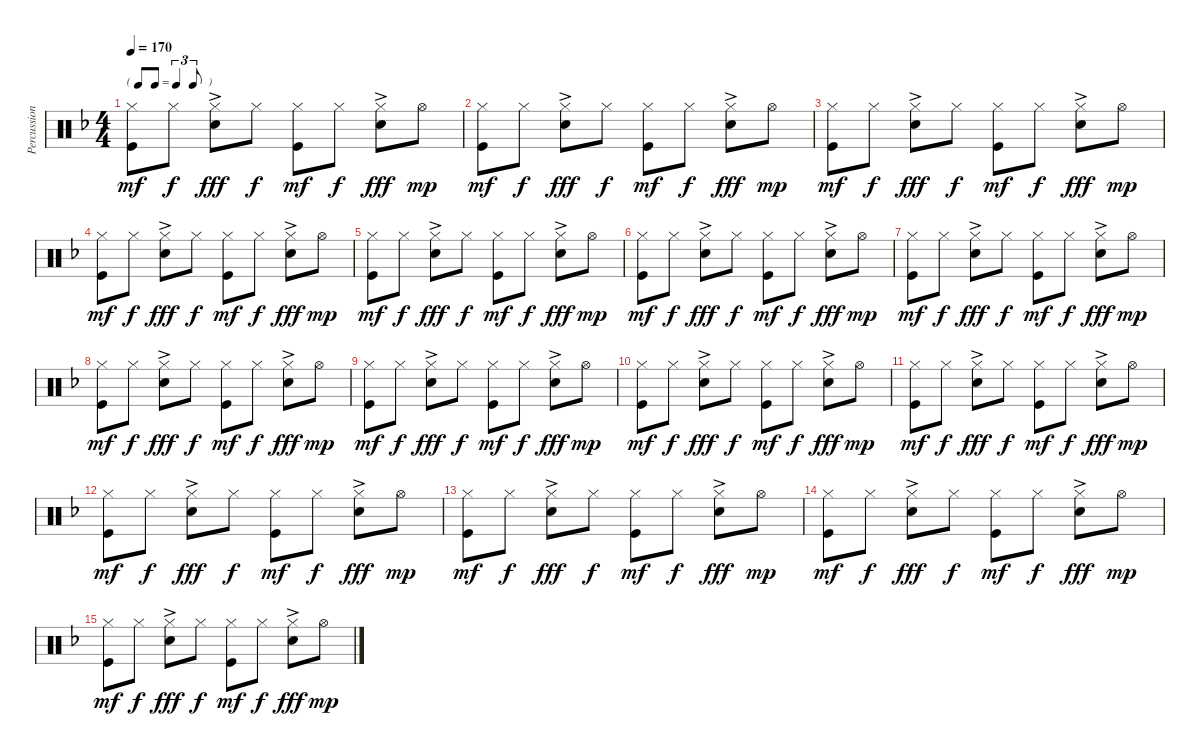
\track ("Percussion" "Percussion") {instrument percussion}
\staff {score}
\articulation defaults
\ts (4 4)
\tf triplet8th
\tempo 170
\clef neutral
\ks f
("Hi-Hat (closed)" "Kick (hit)").8{dy mf} "Hi-Hat (closed)".8{dy f} ("Hi-Hat (closed)" "Snare (hit) 2"{ac}).8{dy fff} "Hi-Hat (closed)".8{dy f} ("Hi-Hat (closed)" "Kick (hit)").8{dy mf} "Hi-Hat (closed)".8{dy f} ("Hi-Hat (closed)" "Snare (hit) 2"{ac}).8{dy fff} "Hi-Hat (open)".8{dy mp} |
("Hi-Hat (closed)" "Kick (hit)").8{dy mf} "Hi-Hat (closed)".8{dy f} ("Hi-Hat (closed)" "Snare (hit) 2"{ac}).8{dy fff} "Hi-Hat (closed)".8{dy f} ("Hi-Hat (closed)" "Kick (hit)").8{dy mf} "Hi-Hat (closed)".8{dy f} ("Hi-Hat (closed)" "Snare (hit) 2"{ac}).8{dy fff} "Hi-Hat (open)".8{dy mp} |
("Hi-Hat (closed)" "Kick (hit)").8{dy mf} "Hi-Hat (closed)".8{dy f} ("Hi-Hat (closed)" "Snare (hit) 2"{ac}).8{dy fff} "Hi-Hat (closed)".8{dy f} ("Hi-Hat (closed)" "Kick (hit)").8{dy mf} "Hi-Hat (closed)".8{dy f} ("Hi-Hat (closed)" "Snare (hit) 2"{ac}).8{dy fff} "Hi-Hat (open)".8{dy mp} |
("Hi-Hat (closed)" "Kick (hit)").8{dy mf} "Hi-Hat (closed)".8{dy f} ("Hi-Hat (closed)" "Snare (hit) 2"{ac}).8{dy fff} "Hi-Hat (closed)".8{dy f} ("Hi-Hat (closed)" "Kick (hit)").8{dy mf} "Hi-Hat (closed)".8{dy f} ("Hi-Hat (closed)" "Snare (hit) 2"{ac}).8{dy fff} "Hi-Hat (open)".8{dy mp} |
("Hi-Hat (closed)" "Kick (hit)").8{dy mf} "Hi-Hat (closed)".8{dy f} ("Hi-Hat (closed)" "Snare (hit) 2"{ac}).8{dy fff} "Hi-Hat (closed)".8{dy f} ("Hi-Hat (closed)" "Kick (hit)").8{dy mf} "Hi-Hat (closed)".8{dy f} ("Hi-Hat (closed)" "Snare (hit) 2"{ac}).8{dy fff} "Hi-Hat (open)".8{dy mp} |
("Hi-Hat (closed)" "Kick (hit)").8{dy mf} "Hi-Hat (closed)".8{dy f} ("Hi-Hat (closed)" "Snare (hit) 2"{ac}).8{dy fff} "Hi-Hat (closed)".8{dy f} ("Hi-Hat (closed)" "Kick (hit)").8{dy mf} "Hi-Hat (closed)".8{dy f} ("Hi-Hat (closed)" "Snare (hit) 2"{ac}).8{dy fff} "Hi-Hat (open)".8{dy mp} |
("Hi-Hat (closed)" "Kick (hit)").8{dy mf} "Hi-Hat (closed)".8{dy f} ("Hi-Hat (closed)" "Snare (hit) 2"{ac}).8{dy fff} "Hi-Hat (closed)".8{dy f} ("Hi-Hat (closed)" "Kick (hit)").8{dy mf} "Hi-Hat (closed)".8{dy f} ("Hi-Hat (closed)" "Snare (hit) 2"{ac}).8{dy fff} "Hi-Hat (open)".8{dy mp} |
("Hi-Hat (closed)" "Kick (hit)").8{dy mf} "Hi-Hat (closed)".8{dy f} ("Hi-Hat (closed)" "Snare (hit) 2"{ac}).8{dy fff} "Hi-Hat (closed)".8{dy f} ("Hi-Hat (closed)" "Kick (hit)").8{dy mf} "Hi-Hat (closed)".8{dy f} ("Hi-Hat (closed)" "Snare (hit) 2"{ac}).8{dy fff} "Hi-Hat (open)".8{dy mp} |
("Hi-Hat (closed)" "Kick (hit)").8{dy mf} "Hi-Hat (closed)".8{dy f} ("Hi-Hat (closed)" "Snare (hit) 2"{ac}).8{dy fff} "Hi-Hat (closed)".8{dy f} ("Hi-Hat (closed)" "Kick (hit)").8{dy mf} "Hi-Hat (closed)".8{dy f} ("Hi-Hat (closed)" "Snare (hit) 2"{ac}).8{dy fff} "Hi-Hat (open)".8{dy mp} |
("Hi-Hat (closed)" "Kick (hit)").8{dy mf} "Hi-Hat (closed)".8{dy f} ("Hi-Hat (closed)" "Snare (hit) 2"{ac}).8{dy fff} "Hi-Hat (closed)".8{dy f} ("Hi-Hat (closed)" "Kick (hit)").8{dy mf} "Hi-Hat (closed)".8{dy f} ("Hi-Hat (closed)" "Snare (hit) 2"{ac}).8{dy fff} "Hi-Hat (open)".8{dy mp} |
("Hi-Hat (closed)" "Kick (hit)").8{dy mf} "Hi-Hat (closed)".8{dy f} ("Hi-Hat (closed)" "Snare (hit) 2"{ac}).8{dy fff} "Hi-Hat (closed)".8{dy f} ("Hi-Hat (closed)" "Kick (hit)").8{dy mf} "Hi-Hat (closed)".8{dy f} ("Hi-Hat (closed)" "Snare (hit) 2"{ac}).8{dy fff} "Hi-Hat (open)".8{dy mp} |
("Hi-Hat (closed)" "Kick (hit)").8{dy mf} "Hi-Hat (closed)".8{dy f} ("Hi-Hat (closed)" "Snare (hit) 2"{ac}).8{dy fff} "Hi-Hat (closed)".8{dy f} ("Hi-Hat (closed)" "Kick (hit)").8{dy mf} "Hi-Hat (closed)".8{dy f} ("Hi-Hat (closed)" "Snare (hit) 2"{ac}).8{dy fff} "Hi-Hat (open)".8{dy mp} |
("Hi-Hat (closed)" "Kick (hit)").8{dy mf} "Hi-Hat (closed)".8{dy f} ("Hi-Hat (closed)" "Snare (hit) 2"{ac}).8{dy fff} "Hi-Hat (closed)".8{dy f} ("Hi-Hat (closed)" "Kick (hit)").8{dy mf} "Hi-Hat (closed)".8{dy f} ("Hi-Hat (closed)" "Snare (hit) 2"{ac}).8{dy fff} "Hi-Hat (open)".8{dy mp} |
("Hi-Hat (closed)" "Kick (hit)").8{dy mf} "Hi-Hat (closed)".8{dy f} ("Hi-Hat (closed)" "Snare (hit) 2"{ac}).8{dy fff} "Hi-Hat (closed)".8{dy f} ("Hi-Hat (closed)" "Kick (hit)").8{dy mf} "Hi-Hat (closed)".8{dy f} ("Hi-Hat (closed)" "Snare (hit) 2"{ac}).8{dy fff} "Hi-Hat (open)".8{dy mp} |
("Hi-Hat (closed)" "Kick (hit)").8{dy mf} "Hi-Hat (closed)".8{dy f} ("Hi-Hat (closed)" "Snare (hit) 2"{ac}).8{dy fff} "Hi-Hat (closed)".8{dy f} ("Hi-Hat (closed)" "Kick (hit)").8{dy mf} "Hi-Hat (closed)".8{dy f} ("Hi-Hat (closed)" "Snare (hit) 2"{ac}).8{dy fff} "Hi-Hat (open)".8{dy mp}
